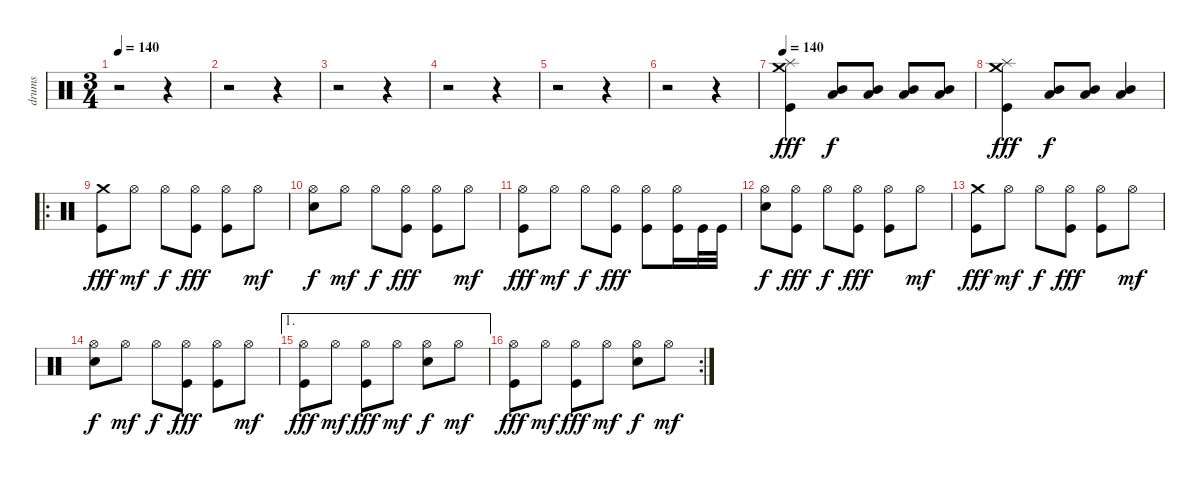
\track ("drums" "drums") {instrument percussion}
\staff {score}
\articulation defaults
\ts (3 4)
\tempo 140
\tempo 120
\tempo 140
\clef neutral
\ks c
r.2{dy fff} r.4 |
r.2 r.4 |
r.2 r.4 |
r.2 r.4 |
r.2 r.4 |
r.2 r.4 |
\tempo 140
("Splash (hit)" "Crash medium (hit)" "Kick (hit)").4 ("Mid Tom (hit)" "Low Tom (hit)").8{dy f} ("Mid Tom (hit)" "Low Tom (hit)").8 ("Mid Tom (hit)" "Low Tom (hit)").8 ("Mid Tom (hit)" "Low Tom (hit)").8 |
("Splash (hit)" "Crash medium (hit)" "Kick (hit)").4{dy fff} ("Mid Tom (hit)" "Low Tom (hit)").8{dy f} ("Mid Tom (hit)" "Low Tom (hit)").8 ("Mid Tom (hit)" "Low Tom (hit)").4 |
\ro
("Crash medium (hit)" "Kick (hit)").8{dy fff} "Hi-Hat (open)".8{dy mf} "Hi-Hat (open)".8{dy f} ("Hi-Hat (open)" "Kick (hit)").8{dy fff} ("Hi-Hat (open)" "Kick (hit)").8 "Hi-Hat (open)".8{dy mf} |
("Hi-Hat (open)" "Snare (hit) 2").8{dy f} "Hi-Hat (open)".8{dy mf} "Hi-Hat (open)".8{dy f} ("Hi-Hat (open)" "Kick (hit)").8{dy fff} ("Hi-Hat (open)" "Kick (hit)").8 "Hi-Hat (open)".8{dy mf} |
("Hi-Hat (open)" "Kick (hit)").8{dy fff} "Hi-Hat (open)".8{dy mf} "Hi-Hat (open)".8{dy f} ("Hi-Hat (open)" "Kick (hit)").8{dy fff} ("Hi-Hat (open)" "Kick (hit)").8 ("Hi-Hat (open)" "Kick (hit)").16 "Kick (hit)".32 "Kick (hit)".32 |
("Hi-Hat (open)" "Snare (hit) 2").8{dy f} ("Hi-Hat (open)" "Kick (hit)").8{dy fff} "Hi-Hat (open)".8{dy f} ("Hi-Hat (open)" "Kick (hit)").8{dy fff} ("Hi-Hat (open)" "Kick (hit)").8 "Hi-Hat (open)".8{dy mf} |
("Crash medium (hit)" "Kick (hit)").8{dy fff} "Hi-Hat (open)".8{dy mf} "Hi-Hat (open)".8{dy f} ("Hi-Hat (open)" "Kick (hit)").8{dy fff} ("Hi-Hat (open)" "Kick (hit)").8 "Hi-Hat (open)".8{dy mf} |
("Hi-Hat (open)" "Snare (hit) 2").8{dy f} "Hi-Hat (open)".8{dy mf} "Hi-Hat (open)".8{dy f} ("Hi-Hat (open)" "Kick (hit)").8{dy fff} ("Hi-Hat (open)" "Kick (hit)").8 "Hi-Hat (open)".8{dy mf} |
\ae 1
("Hi-Hat (open)" "Kick (hit)").8{dy fff} "Hi-Hat (open)".8{dy mf} ("Hi-Hat (open)" "Kick (hit)").8{dy fff} "Hi-Hat (open)".8{dy mf} ("Hi-Hat (open)" "Snare (hit) 2").8{dy f} "Hi-Hat (open)".8{dy mf} |
\rc 2
("Hi-Hat (open)" "Kick (hit)").8{dy fff} "Hi-Hat (open)".8{dy mf} ("Hi-Hat (open)" "Kick (hit)").8{dy fff} "Hi-Hat (open)".8{dy mf} ("Hi-Hat (open)" "Snare (hit) 2").8{dy f} "Hi-Hat (open)".8{dy mf}
